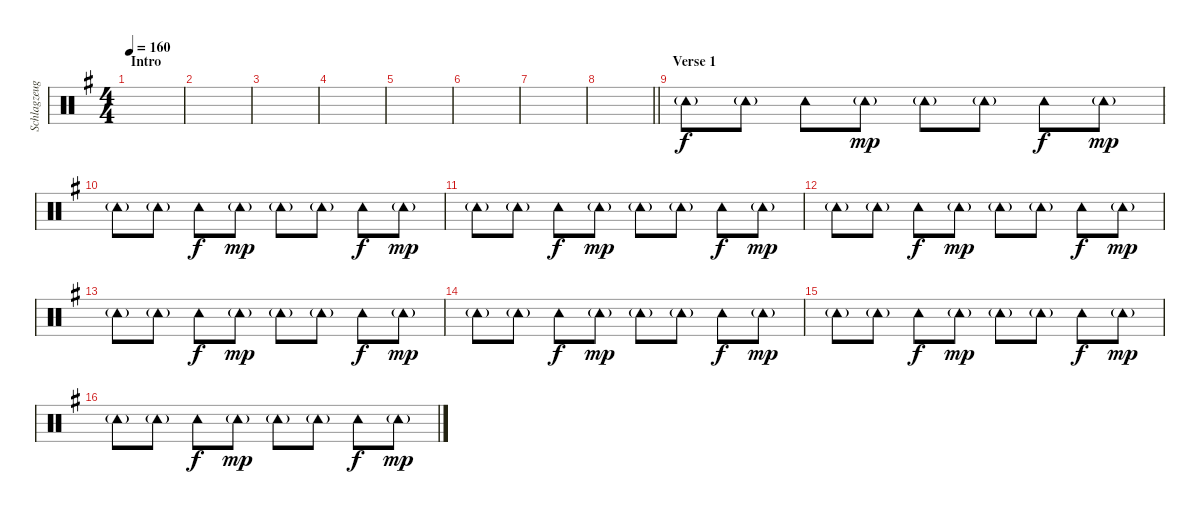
\track ("Schlagzeug" "Schlagzeug") {instrument percussion}
\staff {score}
\articulation defaults
\ts (4 4)
\section ("" "Intro")
\tempo 160
\clef neutral
\ks g
|
|
|
|
|
|
|
\barLineRight lightlight
|
\section ("" "Verse 1")
"Tambourine (hit)"{g}.8 "Tambourine (hit)"{g}.8 "Tambourine (hit)".8{dy f} "Tambourine (hit)"{g}.8{dy mp} "Tambourine (hit)"{g}.8 "Tambourine (hit)"{g}.8 "Tambourine (hit)".8{dy f} "Tambourine (hit)"{g}.8{dy mp} |
"Tambourine (hit)"{g}.8 "Tambourine (hit)"{g}.8 "Tambourine (hit)".8{dy f} "Tambourine (hit)"{g}.8{dy mp} "Tambourine (hit)"{g}.8 "Tambourine (hit)"{g}.8 "Tambourine (hit)".8{dy f} "Tambourine (hit)"{g}.8{dy mp} |
"Tambourine (hit)"{g}.8 "Tambourine (hit)"{g}.8 "Tambourine (hit)".8{dy f} "Tambourine (hit)"{g}.8{dy mp} "Tambourine (hit)"{g}.8 "Tambourine (hit)"{g}.8 "Tambourine (hit)".8{dy f} "Tambourine (hit)"{g}.8{dy mp} |
"Tambourine (hit)"{g}.8 "Tambourine (hit)"{g}.8 "Tambourine (hit)".8{dy f} "Tambourine (hit)"{g}.8{dy mp} "Tambourine (hit)"{g}.8 "Tambourine (hit)"{g}.8 "Tambourine (hit)".8{dy f} "Tambourine (hit)"{g}.8{dy mp} |
"Tambourine (hit)"{g}.8 "Tambourine (hit)"{g}.8 "Tambourine (hit)".8{dy f} "Tambourine (hit)"{g}.8{dy mp} "Tambourine (hit)"{g}.8 "Tambourine (hit)"{g}.8 "Tambourine (hit)".8{dy f} "Tambourine (hit)"{g}.8{dy mp} |
"Tambourine (hit)"{g}.8 "Tambourine (hit)"{g}.8 "Tambourine (hit)".8{dy f} "Tambourine (hit)"{g}.8{dy mp} "Tambourine (hit)"{g}.8 "Tambourine (hit)"{g}.8 "Tambourine (hit)".8{dy f} "Tambourine (hit)"{g}.8{dy mp} |
"Tambourine (hit)"{g}.8 "Tambourine (hit)"{g}.8 "Tambourine (hit)".8{dy f} "Tambourine (hit)"{g}.8{dy mp} "Tambourine (hit)"{g}.8 "Tambourine (hit)"{g}.8 "Tambourine (hit)".8{dy f} "Tambourine (hit)"{g}.8{dy mp} |
"Tambourine (hit)"{g}.8 "Tambourine (hit)"{g}.8 "Tambourine (hit)".8{dy f} "Tambourine (hit)"{g}.8{dy mp} "Tambourine (hit)"{g}.8 "Tambourine (hit)"{g}.8 "Tambourine (hit)".8{dy f} "Tambourine (hit)"{g}.8{dy mp}
